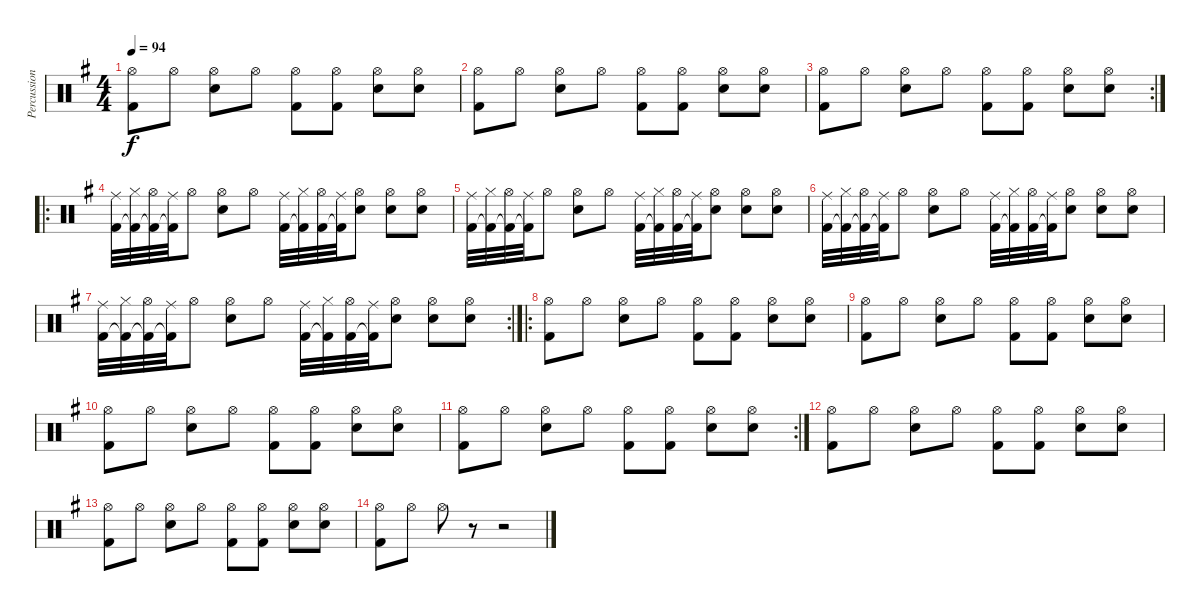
\track ("Percussions" "Percussion") {instrument percussion}
\staff {score}
\articulation defaults
\ts (4 4)
\tempo 94
\clef neutral
\ks g
("Hi-Hat (open)" "Kick (hit) 2").8{dy f} "Hi-Hat (open)".8 ("Hi-Hat (open)" "Snare (hit) 2").8 "Hi-Hat (open)".8 ("Hi-Hat (open)" "Kick (hit) 2").8 ("Hi-Hat (open)" "Kick (hit) 2").8 ("Hi-Hat (open)" "Snare (hit) 2").8 ("Hi-Hat (open)" "Snare (hit) 2").8 |
("Hi-Hat (open)" "Kick (hit) 2").8 "Hi-Hat (open)".8 ("Hi-Hat (open)" "Snare (hit) 2").8 "Hi-Hat (open)".8 ("Hi-Hat (open)" "Kick (hit) 2").8 ("Hi-Hat (open)" "Kick (hit) 2").8 ("Hi-Hat (open)" "Snare (hit) 2").8 ("Hi-Hat (open)" "Snare (hit) 2").8 |
\rc 2
("Hi-Hat (open)" "Kick (hit) 2").8 "Hi-Hat (open)".8 ("Hi-Hat (open)" "Snare (hit) 2").8 "Hi-Hat (open)".8 ("Hi-Hat (open)" "Kick (hit) 2").8 ("Hi-Hat (open)" "Kick (hit) 2").8 ("Hi-Hat (open)" "Snare (hit) 2").8 ("Hi-Hat (open)" "Snare (hit) 2").8 |
\ro
("Ride (middle)" "Kick (hit) 2").32 ("Hi-Hat (closed)" "Kick (hit) 2"{t}).32 ("Hi-Hat (open)" "Kick (hit) 2"{t}).32 ("Ride (middle)" "Kick (hit) 2"{t}).32 "Hi-Hat (open)".8 ("Hi-Hat (open)" "Snare (hit) 2").8 "Hi-Hat (open)".8 ("Ride (middle)" "Kick (hit) 2").32 ("Hi-Hat (closed)" "Kick (hit) 2"{t}).32 ("Hi-Hat (open)" "Kick (hit) 2").32 ("Ride (middle)" "Kick (hit) 2"{t}).32 ("Hi-Hat (open)" "Snare (hit) 2").8 ("Hi-Hat (open)" "Snare (hit) 2").8 ("Hi-Hat (open)" "Snare (hit) 2").8 |
("Ride (middle)" "Kick (hit) 2").32 ("Hi-Hat (closed)" "Kick (hit) 2"{t}).32 ("Hi-Hat (open)" "Kick (hit) 2"{t}).32 ("Ride (middle)" "Kick (hit) 2"{t}).32 "Hi-Hat (open)".8 ("Hi-Hat (open)" "Snare (hit) 2").8 "Hi-Hat (open)".8 ("Ride (middle)" "Kick (hit) 2").32 ("Hi-Hat (closed)" "Kick (hit) 2"{t}).32 ("Hi-Hat (open)" "Kick (hit) 2").32 ("Ride (middle)" "Kick (hit) 2"{t}).32 ("Hi-Hat (open)" "Snare (hit) 2").8 ("Hi-Hat (open)" "Snare (hit) 2").8 ("Hi-Hat (open)" "Snare (hit) 2").8 |
("Ride (middle)" "Kick (hit) 2").32 ("Hi-Hat (closed)" "Kick (hit) 2"{t}).32 ("Hi-Hat (open)" "Kick (hit) 2"{t}).32 ("Ride (middle)" "Kick (hit) 2"{t}).32 "Hi-Hat (open)".8 ("Hi-Hat (open)" "Snare (hit) 2").8 "Hi-Hat (open)".8 ("Ride (middle)" "Kick (hit) 2").32 ("Hi-Hat (closed)" "Kick (hit) 2"{t}).32 ("Hi-Hat (open)" "Kick (hit) 2").32 ("Ride (middle)" "Kick (hit) 2"{t}).32 ("Hi-Hat (open)" "Snare (hit) 2").8 ("Hi-Hat (open)" "Snare (hit) 2").8 ("Hi-Hat (open)" "Snare (hit) 2").8 |
\rc 2
("Ride (middle)" "Kick (hit) 2").32 ("Hi-Hat (closed)" "Kick (hit) 2"{t}).32 ("Hi-Hat (open)" "Kick (hit) 2"{t}).32 ("Ride (middle)" "Kick (hit) 2"{t}).32 "Hi-Hat (open)".8 ("Hi-Hat (open)" "Snare (hit) 2").8 "Hi-Hat (open)".8 ("Ride (middle)" "Kick (hit) 2").32 ("Hi-Hat (closed)" "Kick (hit) 2"{t}).32 ("Hi-Hat (open)" "Kick (hit) 2").32 ("Ride (middle)" "Kick (hit) 2"{t}).32 ("Hi-Hat (open)" "Snare (hit) 2").8 ("Hi-Hat (open)" "Snare (hit) 2").8 ("Hi-Hat (open)" "Snare (hit) 2").8 |
\ro
("Hi-Hat (open)" "Kick (hit) 2").8 "Hi-Hat (open)".8 ("Hi-Hat (open)" "Snare (hit) 2").8 "Hi-Hat (open)".8 ("Hi-Hat (open)" "Kick (hit) 2").8 ("Hi-Hat (open)" "Kick (hit) 2").8 ("Hi-Hat (open)" "Snare (hit) 2").8 ("Hi-Hat (open)" "Snare (hit) 2").8 |
("Hi-Hat (open)" "Kick (hit) 2").8 "Hi-Hat (open)".8 ("Hi-Hat (open)" "Snare (hit) 2").8 "Hi-Hat (open)".8 ("Hi-Hat (open)" "Kick (hit) 2").8 ("Hi-Hat (open)" "Kick (hit) 2").8 ("Hi-Hat (open)" "Snare (hit) 2").8 ("Hi-Hat (open)" "Snare (hit) 2").8 |
("Hi-Hat (open)" "Kick (hit) 2").8 "Hi-Hat (open)".8 ("Hi-Hat (open)" "Snare (hit) 2").8 "Hi-Hat (open)".8 ("Hi-Hat (open)" "Kick (hit) 2").8 ("Hi-Hat (open)" "Kick (hit) 2").8 ("Hi-Hat (open)" "Snare (hit) 2").8 ("Hi-Hat (open)" "Snare (hit) 2").8 |
\rc 2
("Hi-Hat (open)" "Kick (hit) 2").8 "Hi-Hat (open)".8 ("Hi-Hat (open)" "Snare (hit) 2").8 "Hi-Hat (open)".8 ("Hi-Hat (open)" "Kick (hit) 2").8 ("Hi-Hat (open)" "Kick (hit) 2").8 ("Hi-Hat (open)" "Snare (hit) 2").8 ("Hi-Hat (open)" "Snare (hit) 2").8 |
("Hi-Hat (open)" "Kick (hit) 2").8 "Hi-Hat (open)".8 ("Hi-Hat (open)" "Snare (hit) 2").8 "Hi-Hat (open)".8 ("Hi-Hat (open)" "Kick (hit) 2").8 ("Hi-Hat (open)" "Kick (hit) 2").8 ("Hi-Hat (open)" "Snare (hit) 2").8 ("Hi-Hat (open)" "Snare (hit) 2").8 |
("Hi-Hat (open)" "Kick (hit) 2").8 "Hi-Hat (open)".8 ("Hi-Hat (open)" "Snare (hit) 2").8 "Hi-Hat (open)".8 ("Hi-Hat (open)" "Kick (hit) 2").8 ("Hi-Hat (open)" "Kick (hit) 2").8 ("Hi-Hat (open)" "Snare (hit) 2").8 ("Hi-Hat (open)" "Snare (hit) 2").8 |
("Hi-Hat (open)" "Kick (hit) 2").8 "Hi-Hat (open)".8 "Hi-Hat (open)".8 r.8 r.2
